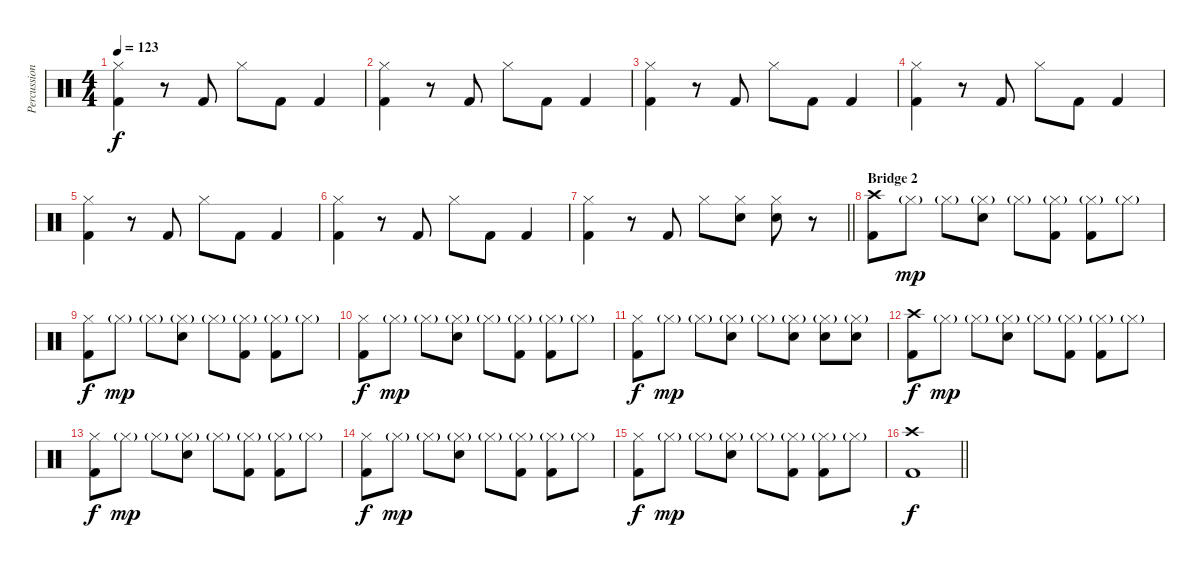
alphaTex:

\track ("Percussion 1" "Percussion") {instrument percussion}
\staff {score}
\articulation defaults
\ts (4 4)
\tempo 123
\clef neutral
\ks c
("Hi-Hat (closed)" "Kick (hit) 2").4{dy f} r.8 "Kick (hit) 2".8 "Hi-Hat (closed)".8 "Kick (hit) 2".8 "Kick (hit) 2".4 |
("Hi-Hat (closed)" "Kick (hit) 2").4 r.8 "Kick (hit) 2".8 "Hi-Hat (closed)".8 "Kick (hit) 2".8 "Kick (hit) 2".4 |
("Hi-Hat (closed)" "Kick (hit) 2").4 r.8 "Kick (hit) 2".8 "Hi-Hat (closed)".8 "Kick (hit) 2".8 "Kick (hit) 2".4 |
("Hi-Hat (closed)" "Kick (hit) 2").4 r.8 "Kick (hit) 2".8 "Hi-Hat (closed)".8 "Kick (hit) 2".8 "Kick (hit) 2".4 |
("Hi-Hat (closed)" "Kick (hit) 2").4 r.8 "Kick (hit) 2".8 "Hi-Hat (closed)".8 "Kick (hit) 2".8 "Kick (hit) 2".4 |
("Hi-Hat (closed)" "Kick (hit) 2").4 r.8 "Kick (hit) 2".8 "Hi-Hat (closed)".8 "Kick (hit) 2".8 "Kick (hit) 2".4 |
\barLineRight lightlight
("Hi-Hat (closed)" "Kick (hit) 2").4 r.8 "Kick (hit) 2".8 "Hi-Hat (closed)".8 ("Hi-Hat (closed)" "Electric Snare (hit)").8 ("Hi-Hat (closed)" "Electric Snare (hit)").8 r.8 |
\section ("" "Bridge 2")
("Crash high (hit)" "Kick (hit) 2").8 "Hi-Hat (closed)"{g}.8{dy mp} "Hi-Hat (closed)"{g}.8 ("Hi-Hat (closed)"{g} "Electric Snare (hit)").8 "Hi-Hat (closed)"{g}.8 ("Hi-Hat (closed)"{g} "Kick (hit) 2").8 ("Hi-Hat (closed)"{g} "Kick (hit) 2").8 "Hi-Hat (closed)"{g}.8 |
("Hi-Hat (closed)" "Kick (hit) 2").8{dy f} "Hi-Hat (closed)"{g}.8{dy mp} "Hi-Hat (closed)"{g}.8 ("Hi-Hat (closed)"{g} "Electric Snare (hit)").8 "Hi-Hat (closed)"{g}.8 ("Hi-Hat (closed)"{g} "Kick (hit) 2").8 ("Hi-Hat (closed)"{g} "Kick (hit) 2").8 "Hi-Hat (closed)"{g}.8 |
("Hi-Hat (closed)" "Kick (hit) 2").8{dy f} "Hi-Hat (closed)"{g}.8{dy mp} "Hi-Hat (closed)"{g}.8 ("Hi-Hat (closed)"{g} "Electric Snare (hit)").8 "Hi-Hat (closed)"{g}.8 ("Hi-Hat (closed)"{g} "Kick (hit) 2").8 ("Hi-Hat (closed)"{g} "Kick (hit) 2").8 "Hi-Hat (closed)"{g}.8 |
("Hi-Hat (closed)" "Kick (hit) 2").8{dy f} "Hi-Hat (closed)"{g}.8{dy mp} "Hi-Hat (closed)"{g}.8 ("Hi-Hat (closed)"{g} "Electric Snare (hit)").8 "Hi-Hat (closed)"{g}.8 ("Hi-Hat (closed)"{g} "Electric Snare (hit)").8 ("Hi-Hat (closed)"{g} "Electric Snare (hit)").8 ("Hi-Hat (closed)"{g} "Electric Snare (hit)").8 |
("Crash high (hit)" "Kick (hit) 2").8{dy f} "Hi-Hat (closed)"{g}.8{dy mp} "Hi-Hat (closed)"{g}.8 ("Hi-Hat (closed)"{g} "Electric Snare (hit)").8 "Hi-Hat (closed)"{g}.8 ("Hi-Hat (closed)"{g} "Kick (hit) 2").8 ("Hi-Hat (closed)"{g} "Kick (hit) 2").8 "Hi-Hat (closed)"{g}.8 |
("Hi-Hat (closed)" "Kick (hit) 2").8{dy f} "Hi-Hat (closed)"{g}.8{dy mp} "Hi-Hat (closed)"{g}.8 ("Hi-Hat (closed)"{g} "Electric Snare (hit)").8 "Hi-Hat (closed)"{g}.8 ("Hi-Hat (closed)"{g} "Kick (hit) 2").8 ("Hi-Hat (closed)"{g} "Kick (hit) 2").8 "Hi-Hat (closed)"{g}.8 |
("Hi-Hat (closed)" "Kick (hit) 2").8{dy f} "Hi-Hat (closed)"{g}.8{dy mp} "Hi-Hat (closed)"{g}.8 ("Hi-Hat (closed)"{g} "Electric Snare (hit)").8 "Hi-Hat (closed)"{g}.8 ("Hi-Hat (closed)"{g} "Kick (hit) 2").8 ("Hi-Hat (closed)"{g} "Kick (hit) 2").8 "Hi-Hat (closed)"{g}.8 |
("Hi-Hat (closed)" "Kick (hit) 2").8{dy f} "Hi-Hat (closed)"{g}.8{dy mp} "Hi-Hat (closed)"{g}.8 ("Hi-Hat (closed)"{g} "Electric Snare (hit)").8 "Hi-Hat (closed)"{g}.8 ("Hi-Hat (closed)"{g} "Kick (hit) 2").8 ("Hi-Hat (closed)"{g} "Kick (hit) 2").8 "Hi-Hat (closed)"{g}.8 |
\barLineRight lightlight
("Crash high (hit)" "Kick (hit) 2").1{dy f}
